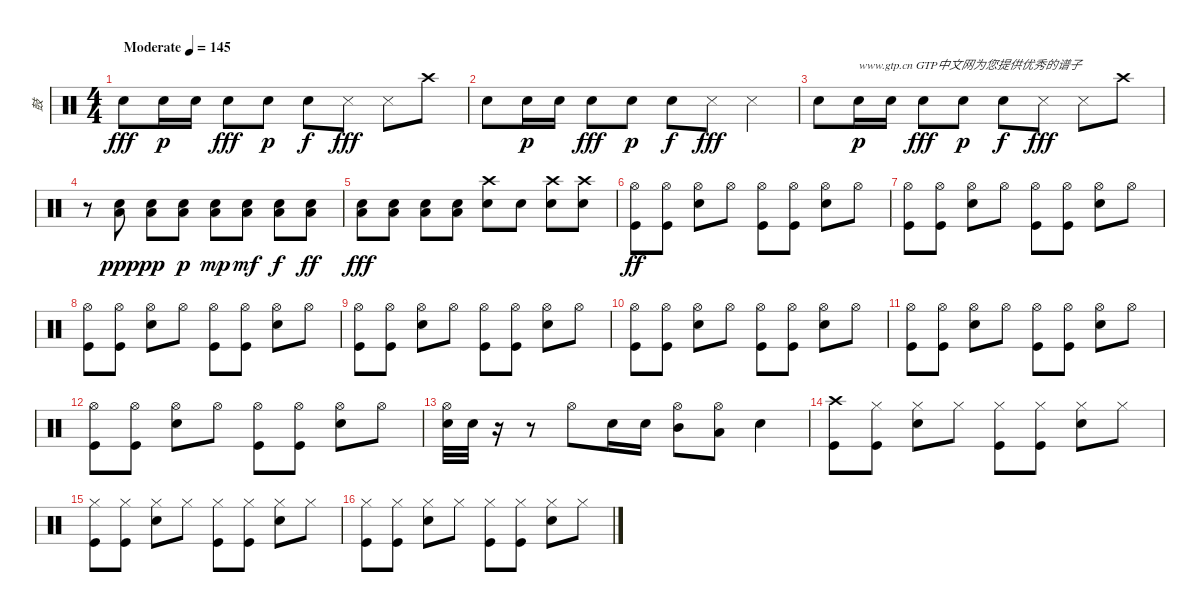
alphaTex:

\track ("鼓" "鼓") {instrument percussion}
\staff {score}
\articulation defaults
\ts (4 4)
\tempo (145 "Moderate")
\clef neutral
\ks c "Snare (hit) 2".8{dy fff} "Snare (hit) 2".16{dy p} "Snare (hit) 2".16 "Snare (hit) 2".8{dy fff} "Snare (hit) 2".8{dy p} "Snare (hit) 2".8{dy f} "Snare (side stick) 3".8{dy fff} "Snare (side stick) 3".8 "Crash high (hit)".8
|
"Snare (hit) 2".8 "Snare (hit) 2".16{dy p} "Snare (hit) 2".16 "Snare (hit) 2".8{dy fff} "Snare (hit) 2".8{dy p} "Snare (hit) 2".8{dy f} "Snare (side stick) 3".8{dy fff} "Snare (side stick) 3".4 |
"Snare (hit) 2".8 "Snare (hit) 2".16{txt "www.gtp.cn GTP中文网为您提供优秀的谱子" dy p} "Snare (hit) 2".16 "Snare (hit) 2".8{dy fff} "Snare (hit) 2".8{dy p} "Snare (hit) 2".8{dy f} "Snare (side stick) 3".8{dy fff} "Snare (side stick) 3".8 "Crash high (hit)".8 |
r.8 ("Snare (hit) 2" "Low Floor Tom (hit)").8{dy ppp} ("Snare (hit) 2" "Low Floor Tom (hit)").8{dy pp} ("Snare (hit) 2" "Low Floor Tom (hit)").8{dy p} ("Snare (hit) 2" "Low Floor Tom (hit)").8{dy mp} ("Snare (hit) 2" "Low Floor Tom (hit)").8{dy mf} ("Snare (hit) 2" "Low Floor Tom (hit)").8{dy f} ("Snare (hit) 2" "Low Floor Tom (hit)").8{dy ff} |
("Snare (hit) 2" "Low Floor Tom (hit)").8{dy fff} ("Snare (hit) 2" "Low Floor Tom (hit)").8 ("Snare (hit) 2" "Low Floor Tom (hit)").8 ("Snare (hit) 2" "Low Floor Tom (hit)").8 ("Crash high (hit)" "Snare (hit) 2").8 "Snare (hit) 2".8 ("Crash high (hit)" "Snare (hit) 2").8 ("Crash high (hit)" "Snare (hit) 2").8 |
("Hi-Hat (open)" "Kick (hit)").8{dy ff} ("Hi-Hat (open)" "Kick (hit)").8 ("Hi-Hat (open)" "Snare (hit) 2").8 "Hi-Hat (open)".8 ("Hi-Hat (open)" "Kick (hit)").8 ("Hi-Hat (open)" "Kick (hit)").8 ("Hi-Hat (open)" "Snare (hit) 2").8 "Hi-Hat (open)".8 |
("Hi-Hat (open)" "Kick (hit)").8 ("Hi-Hat (open)" "Kick (hit)").8 ("Hi-Hat (open)" "Snare (hit) 2").8 "Hi-Hat (open)".8 ("Hi-Hat (open)" "Kick (hit)").8 ("Hi-Hat (open)" "Kick (hit)").8 ("Hi-Hat (open)" "Snare (hit) 2").8 "Hi-Hat (open)".8 |
("Hi-Hat (open)" "Kick (hit)").8 ("Hi-Hat (open)" "Kick (hit)").8 ("Hi-Hat (open)" "Snare (hit) 2").8 "Hi-Hat (open)".8 ("Hi-Hat (open)" "Kick (hit)").8 ("Hi-Hat (open)" "Kick (hit)").8 ("Hi-Hat (open)" "Snare (hit) 2").8 "Hi-Hat (open)".8 |
("Hi-Hat (open)" "Kick (hit)").8 ("Hi-Hat (open)" "Kick (hit)").8 ("Hi-Hat (open)" "Snare (hit) 2").8 "Hi-Hat (open)".8 ("Hi-Hat (open)" "Kick (hit)").8 ("Hi-Hat (open)" "Kick (hit)").8 ("Hi-Hat (open)" "Snare (hit) 2").8 "Hi-Hat (open)".8 |
("Hi-Hat (open)" "Kick (hit)").8 ("Hi-Hat (open)" "Kick (hit)").8 ("Hi-Hat (open)" "Snare (hit) 2").8 "Hi-Hat (open)".8 ("Hi-Hat (open)" "Kick (hit)").8 ("Hi-Hat (open)" "Kick (hit)").8 ("Hi-Hat (open)" "Snare (hit) 2").8 "Hi-Hat (open)".8 |
("Hi-Hat (open)" "Kick (hit)").8 ("Hi-Hat (open)" "Kick (hit)").8 ("Hi-Hat (open)" "Snare (hit) 2").8 "Hi-Hat (open)".8 ("Hi-Hat (open)" "Kick (hit)").8 ("Hi-Hat (open)" "Kick (hit)").8 ("Hi-Hat (open)" "Snare (hit) 2").8 "Hi-Hat (open)".8 |
("Hi-Hat (open)" "Kick (hit)").8 ("Hi-Hat (open)" "Kick (hit)").8 ("Hi-Hat (open)" "Snare (hit) 2").8 "Hi-Hat (open)".8 ("Hi-Hat (open)" "Kick (hit)").8 ("Hi-Hat (open)" "Kick (hit)").8 ("Hi-Hat (open)" "Snare (hit) 2").8 "Hi-Hat (open)".8 |
("Hi-Hat (open)" "Snare (hit) 2").32 "Snare (hit) 2".32 r.16 r.8 "Hi-Hat (open)".8 "Snare (hit) 2".16 "Snare (hit) 2".16 ("Hi-Hat (open)" "Mid Tom (hit)").8 ("Hi-Hat (open)" "Low Tom (hit)").8 "Snare (hit) 2".4 |
("Crash high (hit)" "Kick (hit)").8 ("Hi-Hat (closed)" "Kick (hit)").8 ("Hi-Hat (closed)" "Snare (hit) 2").8 "Hi-Hat (closed)".8 ("Hi-Hat (closed)" "Kick (hit)").8 ("Hi-Hat (closed)" "Kick (hit)").8 ("Hi-Hat (closed)" "Snare (hit) 2").8 "Hi-Hat (closed)".8 |
("Hi-Hat (closed)" "Kick (hit)").8 ("Hi-Hat (closed)" "Kick (hit)").8 ("Hi-Hat (closed)" "Snare (hit) 2").8 "Hi-Hat (closed)".8 ("Hi-Hat (closed)" "Kick (hit)").8 ("Hi-Hat (closed)" "Kick (hit)").8 ("Hi-Hat (closed)" "Snare (hit) 2").8 "Hi-Hat (closed)".8 |
("Hi-Hat (closed)" "Kick (hit)").8 ("Hi-Hat (closed)" "Kick (hit)").8 ("Hi-Hat (closed)" "Snare (hit) 2").8 "Hi-Hat (closed)".8 ("Hi-Hat (closed)" "Kick (hit)").8 ("Hi-Hat (closed)" "Kick (hit)").8 ("Hi-Hat (closed)" "Snare (hit) 2").8 "Hi-Hat (closed)".8
